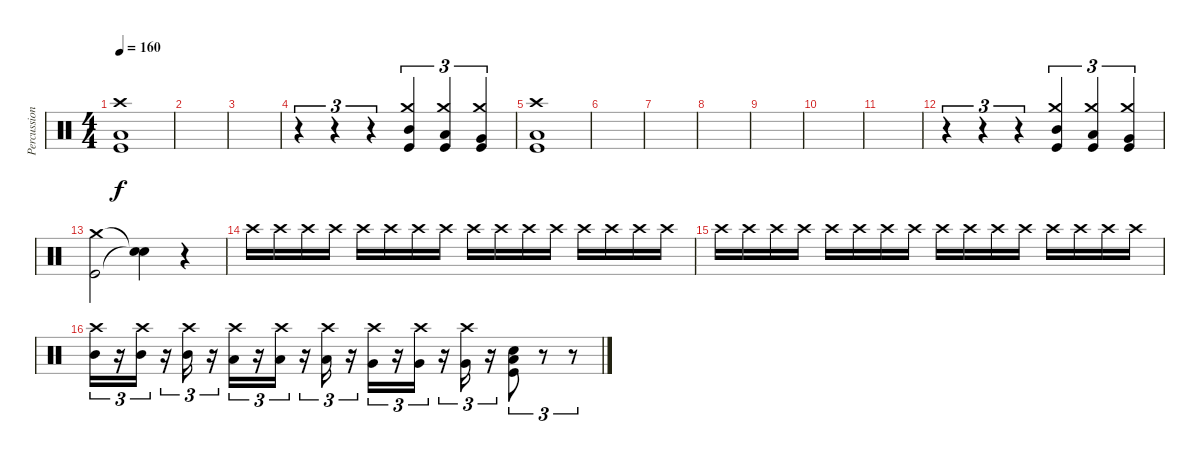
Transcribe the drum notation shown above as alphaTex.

\track ("Percussion" "Percussion") {instrument percussion}
\staff {score}
\articulation defaults
\ts (4 4)
\tempo 160
\clef neutral
\ks c
("Crash high (hit)" "Low Floor Tom (hit)" "Kick (hit)").1{dy f} |
|
|
r.4{tu (3 2)} r.4{tu (3 2)} r.4{tu (3 2)} ("Crash medium (hit)" "Mid Tom (hit)" "Kick (hit)").4{tu (3 2)} ("Crash medium (hit)" "Low Tom (hit)" "Kick (hit)").4{tu (3 2)} ("Crash medium (hit)" "Very Low Tom (hit)" "Kick (hit)").4{tu (3 2)} |
("Crash high (hit)" "Low Floor Tom (hit)" "Kick (hit)").1 |
|
|
|
|
|
|
r.4{tu (3 2)} r.4{tu (3 2)} r.4{tu (3 2)} ("Crash medium (hit)" "Mid Tom (hit)" "Kick (hit)").4{tu (3 2)} ("Crash medium (hit)" "Low Tom (hit)" "Kick (hit)").4{tu (3 2)} ("Crash medium (hit)" "Very Low Tom (hit)" "Kick (hit)").4{tu (3 2)} |
("Crash medium (hit)" "Kick (hit)").2 ("Snare (hit)"{t} "Snare (hit)"{t}).4 r.4{volume 0} |
"Crash high (hit)".16{volume 16} "Crash high (hit)".16 "Crash high (hit)".16 "Crash high (hit)".16 "Crash high (hit)".16 "Crash high (hit)".16 "Crash high (hit)".16 "Crash high (hit)".16 "Crash high (hit)".16 "Crash high (hit)".16 "Crash high (hit)".16 "Crash high (hit)".16 "Crash high (hit)".16 "Crash high (hit)".16 "Crash high (hit)".16 "Crash high (hit)".16 |
"Crash high (hit)".16 "Crash high (hit)".16 "Crash high (hit)".16 "Crash high (hit)".16 "Crash high (hit)".16 "Crash high (hit)".16 "Crash high (hit)".16 "Crash high (hit)".16 "Crash high (hit)".16 "Crash high (hit)".16 "Crash high (hit)".16 "Crash high (hit)".16 "Crash high (hit)".16 "Crash high (hit)".16 "Crash high (hit)".16 "Crash high (hit)".16 |
("Mid Tom (hit)" "Crash high (hit)").16{tu (3 2)} r.16{tu (3 2)} ("Mid Tom (hit)" "Crash high (hit)").16{tu (3 2)} r.16{tu (3 2)} ("Mid Tom (hit)" "Crash high (hit)").16{tu (3 2)} r.16{tu (3 2)} ("Low Tom (hit)" "Crash high (hit)").16{tu (3 2)} r.16{tu (3 2)} ("Low Tom (hit)" "Crash high (hit)").16{tu (3 2)} r.16{tu (3 2)} ("Low Tom (hit)" "Crash high (hit)").16{tu (3 2)} r.16{tu (3 2)} ("Very Low Tom (hit)" "Crash high (hit)").16{tu (3 2)} r.16{tu (3 2)} ("Very Low Tom (hit)" "Crash high (hit)").16{tu (3 2)} r.16{tu (3 2)} ("Very Low Tom (hit)" "Crash high (hit)").16{tu (3 2)} r.16{tu (3 2)} ("Low Floor Tom (hit)" "Electric Snare (hit)" "Kick (hit)").8{tu (3 2)} r.8{tu (3 2)} r.8{tu (3 2)}
